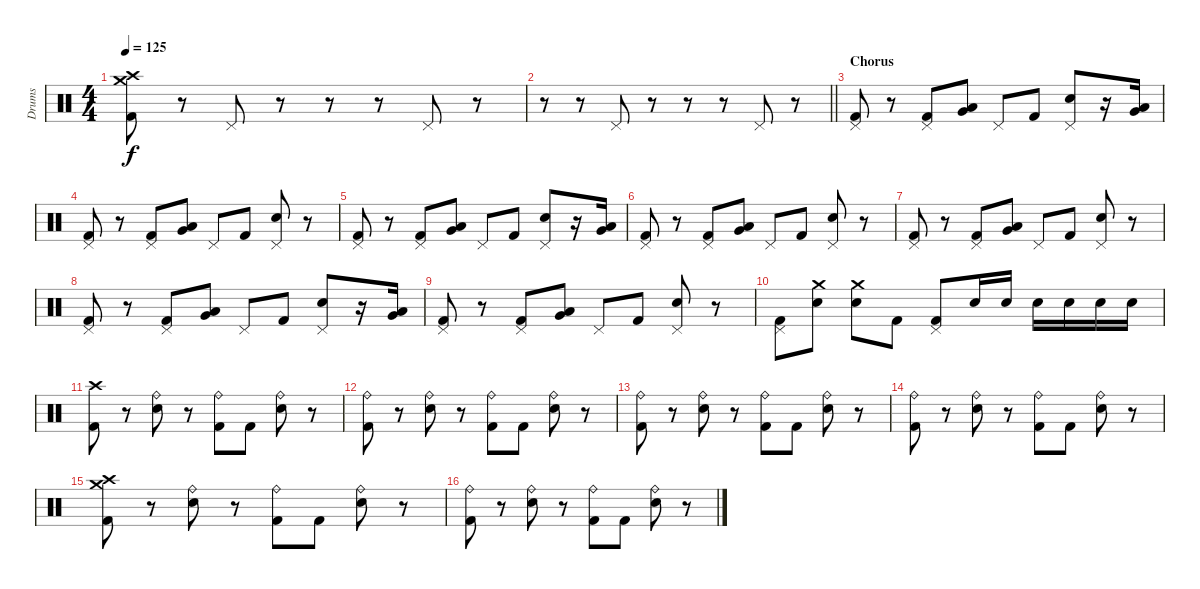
\track ("Drums" "Drums") {instrument percussion}
\staff {score}
\articulation defaults
\ts (4 4)
\tempo 125
\clef neutral
\ks c
("Crash medium (hit)" "Crash high (hit)" "Kick (hit) 2").8{dy f} r.8 "Pedal Hi-Hat (hit)".8 r.8 r.8 r.8 "Pedal Hi-Hat (hit)".8 r.8 |
\barLineRight lightlight
r.8 r.8 "Pedal Hi-Hat (hit)".8 r.8 r.8 r.8 "Pedal Hi-Hat (hit)".8 r.8 |
\section ("" "Chorus")
("Pedal Hi-Hat (hit)" "Kick (hit) 2").8 r.8 ("Pedal Hi-Hat (hit)" "Kick (hit) 2").8 ("Low Tom (hit)" "Very Low Tom (hit)").8 "Pedal Hi-Hat (hit)".8 "Kick (hit) 2".8 ("Pedal Hi-Hat (hit)" "Snare (hit) 2").8 r.16 ("Low Tom (hit)" "Very Low Tom (hit)").16 |
("Pedal Hi-Hat (hit)" "Kick (hit) 2").8 r.8 ("Pedal Hi-Hat (hit)" "Kick (hit) 2").8 ("Low Tom (hit)" "Very Low Tom (hit)").8 "Pedal Hi-Hat (hit)".8 "Kick (hit) 2".8 ("Pedal Hi-Hat (hit)" "Snare (hit) 2").8 r.8 |
("Pedal Hi-Hat (hit)" "Kick (hit) 2").8 r.8 ("Pedal Hi-Hat (hit)" "Kick (hit) 2").8 ("Low Tom (hit)" "Very Low Tom (hit)").8 "Pedal Hi-Hat (hit)".8 "Kick (hit) 2".8 ("Pedal Hi-Hat (hit)" "Snare (hit) 2").8 r.16 ("Low Tom (hit)" "Very Low Tom (hit)").16 |
("Pedal Hi-Hat (hit)" "Kick (hit) 2").8 r.8 ("Pedal Hi-Hat (hit)" "Kick (hit) 2").8 ("Low Tom (hit)" "Very Low Tom (hit)").8 "Pedal Hi-Hat (hit)".8 "Kick (hit) 2".8 ("Pedal Hi-Hat (hit)" "Snare (hit) 2").8 r.8 |
("Pedal Hi-Hat (hit)" "Kick (hit) 2").8 r.8 ("Pedal Hi-Hat (hit)" "Kick (hit) 2").8 ("Low Tom (hit)" "Very Low Tom (hit)").8 "Pedal Hi-Hat (hit)".8 "Kick (hit) 2".8 ("Pedal Hi-Hat (hit)" "Snare (hit) 2").8 r.8 |
("Pedal Hi-Hat (hit)" "Kick (hit) 2").8 r.8 ("Pedal Hi-Hat (hit)" "Kick (hit) 2").8 ("Low Tom (hit)" "Very Low Tom (hit)").8 "Pedal Hi-Hat (hit)".8 "Kick (hit) 2".8 ("Pedal Hi-Hat (hit)" "Snare (hit) 2").8 r.16 ("Low Tom (hit)" "Very Low Tom (hit)").16 |
("Pedal Hi-Hat (hit)" "Kick (hit) 2").8 r.8 ("Pedal Hi-Hat (hit)" "Kick (hit) 2").8 ("Low Tom (hit)" "Very Low Tom (hit)").8 "Pedal Hi-Hat (hit)".8 "Kick (hit) 2".8 ("Pedal Hi-Hat (hit)" "Snare (hit) 2").8 r.8 |
("Pedal Hi-Hat (hit)" "Kick (hit) 2").8 ("Crash medium (hit)" "Snare (hit) 2").8 ("Crash medium (hit)" "Snare (hit) 2").8 "Kick (hit) 2".8 ("Pedal Hi-Hat (hit)" "Kick (hit) 2").8 "Snare (hit) 2".16 "Snare (hit) 2".16 "Snare (hit) 2".16 "Snare (hit) 2".16 "Snare (hit) 2".16 "Snare (hit) 2".16 |
("Crash high (hit)" "Kick (hit) 2").8 r.8 ("Ride (bell)" "Snare (hit) 2").8 r.8 ("Ride (bell)" "Kick (hit) 2").8 "Kick (hit) 2".8 ("Ride (bell)" "Snare (hit) 2").8 r.8 |
("Ride (bell)" "Kick (hit) 2").8 r.8 ("Ride (bell)" "Snare (hit) 2").8 r.8 ("Ride (bell)" "Kick (hit) 2").8 "Kick (hit) 2".8 ("Ride (bell)" "Snare (hit) 2").8 r.8 |
("Ride (bell)" "Kick (hit) 2").8 r.8 ("Ride (bell)" "Snare (hit) 2").8 r.8 ("Ride (bell)" "Kick (hit) 2").8 "Kick (hit) 2".8 ("Ride (bell)" "Snare (hit) 2").8 r.8 |
("Ride (bell)" "Kick (hit) 2").8 r.8 ("Ride (bell)" "Snare (hit) 2").8 r.8 ("Ride (bell)" "Kick (hit) 2").8 "Kick (hit) 2".8 ("Ride (bell)" "Snare (hit) 2").8 r.8 |
("Crash high (hit)" "Crash medium (hit)" "Kick (hit) 2").8 r.8 ("Ride (bell)" "Snare (hit) 2").8 r.8 ("Ride (bell)" "Kick (hit) 2").8 "Kick (hit) 2".8 ("Ride (bell)" "Snare (hit) 2").8 r.8 |
("Ride (bell)" "Kick (hit) 2").8 r.8 ("Ride (bell)" "Snare (hit) 2").8 r.8 ("Ride (bell)" "Kick (hit) 2").8 "Kick (hit) 2".8 ("Ride (bell)" "Snare (hit) 2").8 r.8
